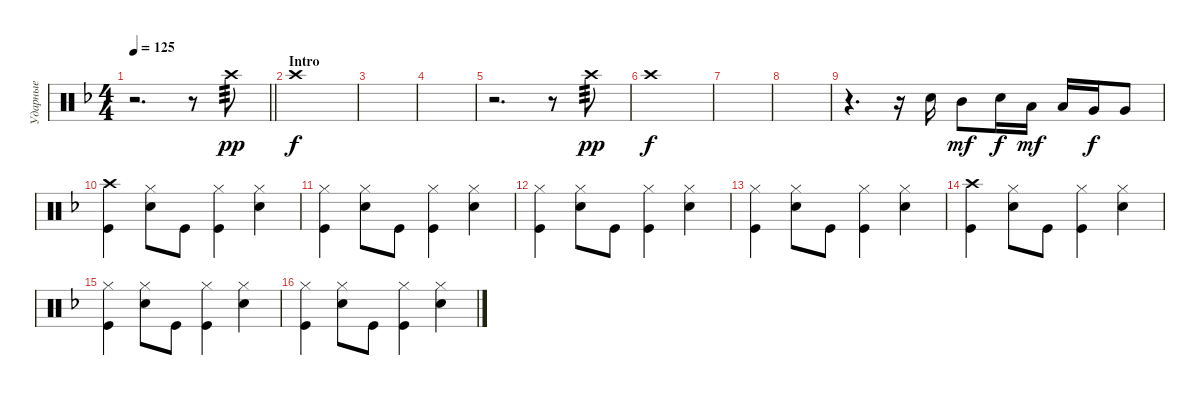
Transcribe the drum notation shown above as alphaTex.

\track ("Ударные" "Ударные") {instrument percussion}
\staff {score}
\articulation defaults
\ts (4 4)
\tempo 125
\clef neutral
\barLineRight lightlight
\ks dminor
r.2{d dy pp} r.8{volume 0} "Crash high (hit)".8{tp 3 volume 14} |
\section ("" "Intro")
"Crash high (hit)".1{dy f} |
|
|
r.2{d} r.8{volume 0} "Crash high (hit)".8{tp 3 dy pp volume 14} |
"Crash high (hit)".1{dy f} |
|
|
r.4{d volume 14} r.16 "Snare (hit) 2".16 "Mid Tom (hit)".8{dy mf} "Snare (hit) 2".16{dy f} "Low Tom (hit)".16{dy mf} "Low Tom (hit)".16 "Very Low Tom (hit)".16{dy f} "Very Low Tom (hit)".8 |
("Kick (hit)" "Crash high (hit)").4 ("Hi-Hat (closed)" "Snare (hit) 2").8 "Kick (hit)".8 ("Hi-Hat (closed)" "Kick (hit)").4 ("Hi-Hat (closed)" "Snare (hit) 2").4 |
("Hi-Hat (closed)" "Kick (hit)").4 ("Hi-Hat (closed)" "Snare (hit) 2").8 "Kick (hit)".8 ("Hi-Hat (closed)" "Kick (hit)").4 ("Hi-Hat (closed)" "Snare (hit) 2").4 |
("Hi-Hat (closed)" "Kick (hit)").4 ("Hi-Hat (closed)" "Snare (hit) 2").8 "Kick (hit)".8 ("Hi-Hat (closed)" "Kick (hit)").4 ("Hi-Hat (closed)" "Snare (hit) 2").4 |
("Hi-Hat (closed)" "Kick (hit)").4 ("Hi-Hat (closed)" "Snare (hit) 2").8 "Kick (hit)".8 ("Hi-Hat (closed)" "Kick (hit)").4 ("Hi-Hat (closed)" "Snare (hit) 2").4 |
("Kick (hit)" "Crash high (hit)").4 ("Hi-Hat (closed)" "Snare (hit) 2").8 "Kick (hit)".8 ("Hi-Hat (closed)" "Kick (hit)").4 ("Hi-Hat (closed)" "Snare (hit) 2").4 |
("Hi-Hat (closed)" "Kick (hit)").4 ("Hi-Hat (closed)" "Snare (hit) 2").8 "Kick (hit)".8 ("Hi-Hat (closed)" "Kick (hit)").4 ("Hi-Hat (closed)" "Snare (hit) 2").4 |
("Hi-Hat (closed)" "Kick (hit)").4 ("Hi-Hat (closed)" "Snare (hit) 2").8 "Kick (hit)".8 ("Hi-Hat (closed)" "Kick (hit)").4 ("Hi-Hat (closed)" "Snare (hit) 2").4
